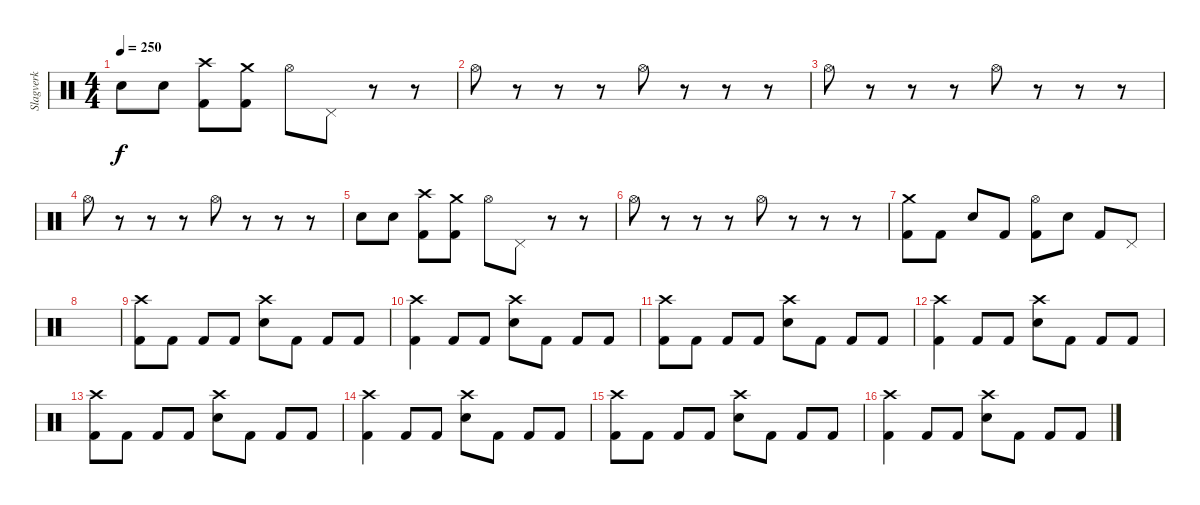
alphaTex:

\track ("Slagverk" "Slagverk") {instrument percussion}
\staff {score}
\articulation defaults
\ts (4 4)
\tempo 250
\clef neutral
\ks c "Electric Snare (hit)".8{dy f} "Electric Snare (hit)".8
("Crash high (hit)" "Kick (hit) 2").8 ("Crash medium (hit)" "Kick (hit) 2").8 "Hi-Hat (open)".8 "Pedal Hi-Hat (hit)".8 r.8 r.8 |
"Hi-Hat (open)".8 r.8 r.8 r.8 "Hi-Hat (open)".8 r.8 r.8 r.8 |
"Hi-Hat (open)".8 r.8 r.8 r.8 "Hi-Hat (open)".8 r.8 r.8 r.8 |
"Hi-Hat (open)".8 r.8 r.8 r.8 "Hi-Hat (open)".8 r.8 r.8 r.8 |
"Electric Snare (hit)".8 "Electric Snare (hit)".8 ("Crash high (hit)" "Kick (hit) 2").8 ("Crash medium (hit)" "Kick (hit) 2").8 "Hi-Hat (open)".8 "Pedal Hi-Hat (hit)".8 r.8 r.8 |
"Hi-Hat (open)".8 r.8 r.8 r.8 "Hi-Hat (open)".8 r.8 r.8 r.8 |
("Crash medium (hit)" "Kick (hit) 2").8 "Kick (hit) 2".8 "Electric Snare (hit)".8 "Kick (hit) 2".8 ("Hi-Hat (open)" "Kick (hit) 2").8 "Electric Snare (hit)".8 "Kick (hit) 2".8 "Pedal Hi-Hat (hit)".8 |
|
("Crash high (hit)" "Kick (hit) 2").8 "Kick (hit) 2".8 "Kick (hit) 2".8 "Kick (hit) 2".8 ("Crash high (hit)" "Electric Snare (hit)").8 "Kick (hit) 2".8 "Kick (hit) 2".8 "Kick (hit) 2".8 |
("Crash high (hit)" "Kick (hit) 2").4 "Kick (hit) 2".8 "Kick (hit) 2".8 ("Crash high (hit)" "Electric Snare (hit)").8 "Kick (hit) 2".8 "Kick (hit) 2".8 "Kick (hit) 2".8 |
("Crash high (hit)" "Kick (hit) 2").8 "Kick (hit) 2".8 "Kick (hit) 2".8 "Kick (hit) 2".8 ("Crash high (hit)" "Electric Snare (hit)").8 "Kick (hit) 2".8 "Kick (hit) 2".8 "Kick (hit) 2".8 |
("Crash high (hit)" "Kick (hit) 2").4 "Kick (hit) 2".8 "Kick (hit) 2".8 ("Crash high (hit)" "Electric Snare (hit)").8 "Kick (hit) 2".8 "Kick (hit) 2".8 "Kick (hit) 2".8 |
("Crash high (hit)" "Kick (hit) 2").8 "Kick (hit) 2".8 "Kick (hit) 2".8 "Kick (hit) 2".8 ("Crash high (hit)" "Electric Snare (hit)").8 "Kick (hit) 2".8 "Kick (hit) 2".8 "Kick (hit) 2".8 |
("Crash high (hit)" "Kick (hit) 2").4 "Kick (hit) 2".8 "Kick (hit) 2".8 ("Crash high (hit)" "Electric Snare (hit)").8 "Kick (hit) 2".8 "Kick (hit) 2".8 "Kick (hit) 2".8 |
("Crash high (hit)" "Kick (hit) 2").8 "Kick (hit) 2".8 "Kick (hit) 2".8 "Kick (hit) 2".8 ("Crash high (hit)" "Electric Snare (hit)").8 "Kick (hit) 2".8 "Kick (hit) 2".8 "Kick (hit) 2".8 |
("Crash high (hit)" "Kick (hit) 2").4 "Kick (hit) 2".8 "Kick (hit) 2".8 ("Crash high (hit)" "Electric Snare (hit)").8 "Kick (hit) 2".8 "Kick (hit) 2".8 "Kick (hit) 2".8
